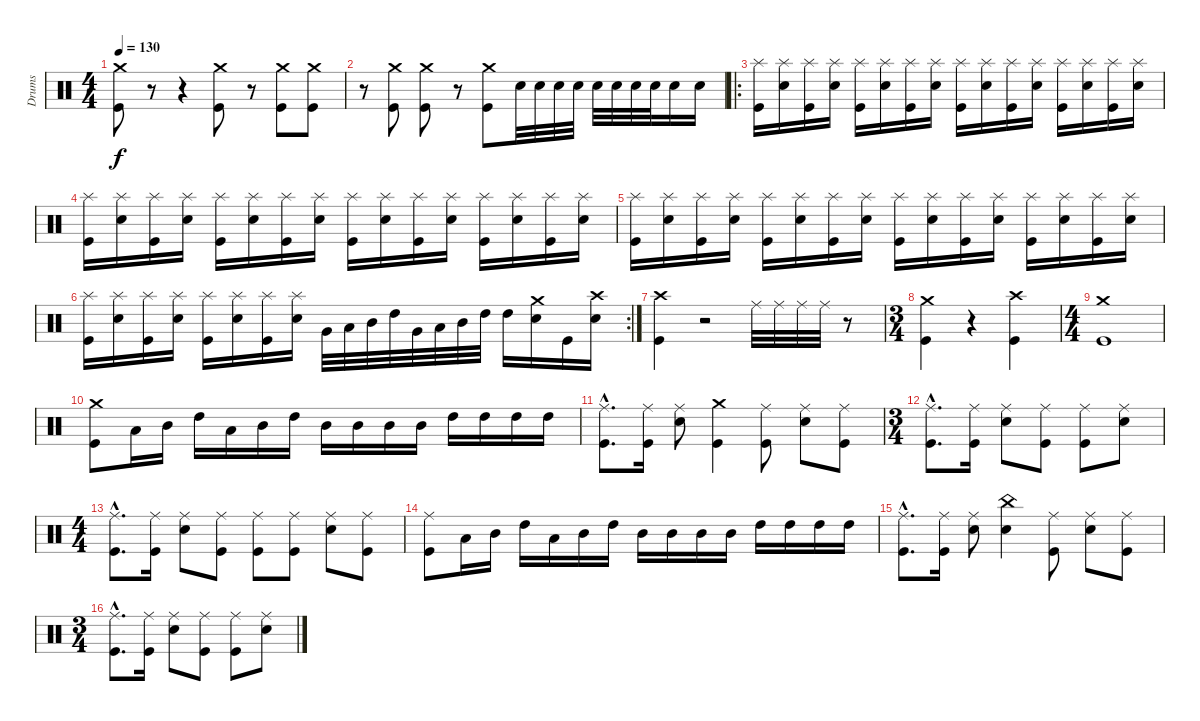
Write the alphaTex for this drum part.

\track ("Drums" "Drums") {instrument percussion}
\staff {score}
\articulation defaults
\ts (4 4)
\tempo 130
\clef neutral
\ks c
("Kick (hit)" "Crash medium (hit)").8{dy f} r.8 r.4 ("Kick (hit)" "Crash medium (hit)").8 r.8 ("Kick (hit)" "Crash medium (hit)").8 ("Kick (hit)" "Crash medium (hit)").8 |
r.8 ("Kick (hit)" "Crash medium (hit)").8 ("Kick (hit)" "Crash medium (hit)").8 r.8 ("Kick (hit)" "Crash medium (hit)").8 "Electric Snare (hit)".32 "Electric Snare (hit)".32 "Electric Snare (hit)".32 "Electric Snare (hit)".32 "Electric Snare (hit)".32 "Electric Snare (hit)".32 "Electric Snare (hit)".32 "Electric Snare (hit)".32 "Electric Snare (hit)".16 "Electric Snare (hit)".16 |
\ro
("Kick (hit)" "Splash (hit)").16 ("Electric Snare (hit)" "Splash (hit)").16 ("Kick (hit)" "Splash (hit)").16 ("Electric Snare (hit)" "Splash (hit)").16 ("Kick (hit)" "Splash (hit)").16 ("Electric Snare (hit)" "Splash (hit)").16 ("Kick (hit)" "Splash (hit)").16 ("Electric Snare (hit)" "Splash (hit)").16 ("Kick (hit)" "Splash (hit)").16 ("Electric Snare (hit)" "Splash (hit)").16 ("Kick (hit)" "Splash (hit)").16 ("Electric Snare (hit)" "Splash (hit)").16 ("Kick (hit)" "Splash (hit)").16 ("Electric Snare (hit)" "Splash (hit)").16 ("Kick (hit)" "Splash (hit)").16 ("Electric Snare (hit)" "Splash (hit)").16 |
("Kick (hit)" "Splash (hit)").16 ("Electric Snare (hit)" "Splash (hit)").16 ("Kick (hit)" "Splash (hit)").16 ("Electric Snare (hit)" "Splash (hit)").16 ("Kick (hit)" "Splash (hit)").16 ("Electric Snare (hit)" "Splash (hit)").16 ("Kick (hit)" "Splash (hit)").16 ("Electric Snare (hit)" "Splash (hit)").16 ("Kick (hit)" "Splash (hit)").16 ("Electric Snare (hit)" "Splash (hit)").16 ("Kick (hit)" "Splash (hit)").16 ("Electric Snare (hit)" "Splash (hit)").16 ("Kick (hit)" "Splash (hit)").16 ("Electric Snare (hit)" "Splash (hit)").16 ("Kick (hit)" "Splash (hit)").16 ("Electric Snare (hit)" "Splash (hit)").16 |
("Kick (hit)" "Splash (hit)").16 ("Electric Snare (hit)" "Splash (hit)").16 ("Kick (hit)" "Splash (hit)").16 ("Electric Snare (hit)" "Splash (hit)").16 ("Kick (hit)" "Splash (hit)").16 ("Electric Snare (hit)" "Splash (hit)").16 ("Kick (hit)" "Splash (hit)").16 ("Electric Snare (hit)" "Splash (hit)").16 ("Kick (hit)" "Splash (hit)").16 ("Electric Snare (hit)" "Splash (hit)").16 ("Kick (hit)" "Splash (hit)").16 ("Electric Snare (hit)" "Splash (hit)").16 ("Kick (hit)" "Splash (hit)").16 ("Electric Snare (hit)" "Splash (hit)").16 ("Kick (hit)" "Splash (hit)").16 ("Electric Snare (hit)" "Splash (hit)").16 |
\rc 2
("Kick (hit)" "Splash (hit)").16 ("Electric Snare (hit)" "Splash (hit)").16 ("Kick (hit)" "Splash (hit)").16 ("Electric Snare (hit)" "Splash (hit)").16 ("Kick (hit)" "Splash (hit)").16 ("Electric Snare (hit)" "Splash (hit)").16 ("Kick (hit)" "Splash (hit)").16 ("Electric Snare (hit)" "Splash (hit)").16 "Very Low Tom (hit)".32 "Low Tom (hit)".32 "Mid Tom (hit)".32 "High Tom (hit)".32 "Very Low Tom (hit)".32 "Low Tom (hit)".32 "Mid Tom (hit)".32 "High Tom (hit)".32 "High Tom (hit)".16 ("Electric Snare (hit)" "Crash medium (hit)").16 "Kick (hit)".16 ("Electric Snare (hit)" "Crash high (hit)").16 |
("Kick (hit)" "Crash high (hit)").4 r.2 "Ride (middle)".32 "Ride (middle)".32 "Ride (middle)".32 "Ride (middle)".32 r.8 |
\ts (3 4)
("Kick (hit)" "Crash medium (hit)").4 r.4 ("Kick (hit)" "Crash high (hit)").4 |
\ts (4 4)
("Kick (hit)" "Crash medium (hit)").1 |
("Kick (hit)" "Crash medium (hit)").8 "Low Tom (hit)".16 "Mid Tom (hit)".16 "High Tom (hit)".16 "Low Tom (hit)".16 "Mid Tom (hit)".16 "High Tom (hit)".16 "Mid Tom (hit)".16 "Mid Tom (hit)".16 "Mid Tom (hit)".16 "Mid Tom (hit)".16 "High Tom (hit)".16 "High Tom (hit)".16 "High Tom (hit)".16 "High Tom (hit)".16 |
("Kick (hit)"{hac} "Ride (middle)"{hac}).8{d} ("Kick (hit)" "Ride (middle)").16 ("Electric Snare (hit)" "Ride (middle)").8 ("Kick (hit)" "Crash medium (hit)").4 ("Kick (hit)" "Ride (middle)").8 ("Electric Snare (hit)" "Ride (middle)").8 ("Kick (hit)" "Ride (middle)").8 |
\ts (3 4)
("Kick (hit)"{hac} "Ride (middle)"{hac}).8{d} ("Kick (hit)" "Ride (middle)").16 ("Electric Snare (hit)" "Ride (middle)").8 ("Kick (hit)" "Ride (middle)").8 ("Kick (hit)" "Ride (middle)").8 ("Electric Snare (hit)" "Ride (middle)").8 |
\ts (4 4)
("Kick (hit)"{hac} "Ride (middle)"{hac}).8{d} ("Kick (hit)" "Ride (middle)").16 ("Electric Snare (hit)" "Ride (middle)").8 ("Kick (hit)" "Ride (middle)").8 ("Kick (hit)" "Ride (middle)").8 ("Kick (hit)" "Ride (middle)").8 ("Electric Snare (hit)" "Ride (middle)").8 ("Kick (hit)" "Ride (middle)").8 |
("Kick (hit)" "Ride (middle)").8 "Low Tom (hit)".16 "Mid Tom (hit)".16 "High Tom (hit)".16 "Low Tom (hit)".16 "Mid Tom (hit)".16 "High Tom (hit)".16 "Mid Tom (hit)".16 "Mid Tom (hit)".16 "Mid Tom (hit)".16 "Mid Tom (hit)".16 "High Tom (hit)".16 "High Tom (hit)".16 "High Tom (hit)".16 "High Tom (hit)".16 |
("Kick (hit)"{hac} "Ride (middle)"{hac}).8{d} ("Kick (hit)" "Ride (middle)").16 ("Electric Snare (hit)" "Ride (middle)").8 ("Electric Snare (hit)" "China (hit)").4 ("Kick (hit)" "Ride (middle)").8 ("Electric Snare (hit)" "Ride (middle)").8 ("Kick (hit)" "Ride (middle)").8 |
\ts (3 4)
("Kick (hit)"{hac} "Ride (middle)"{hac}).8{d} ("Kick (hit)" "Ride (middle)").16 ("Electric Snare (hit)" "Ride (middle)").8 ("Kick (hit)" "Ride (middle)").8 ("Kick (hit)" "Ride (middle)").8 ("Electric Snare (hit)" "Ride (middle)").8
